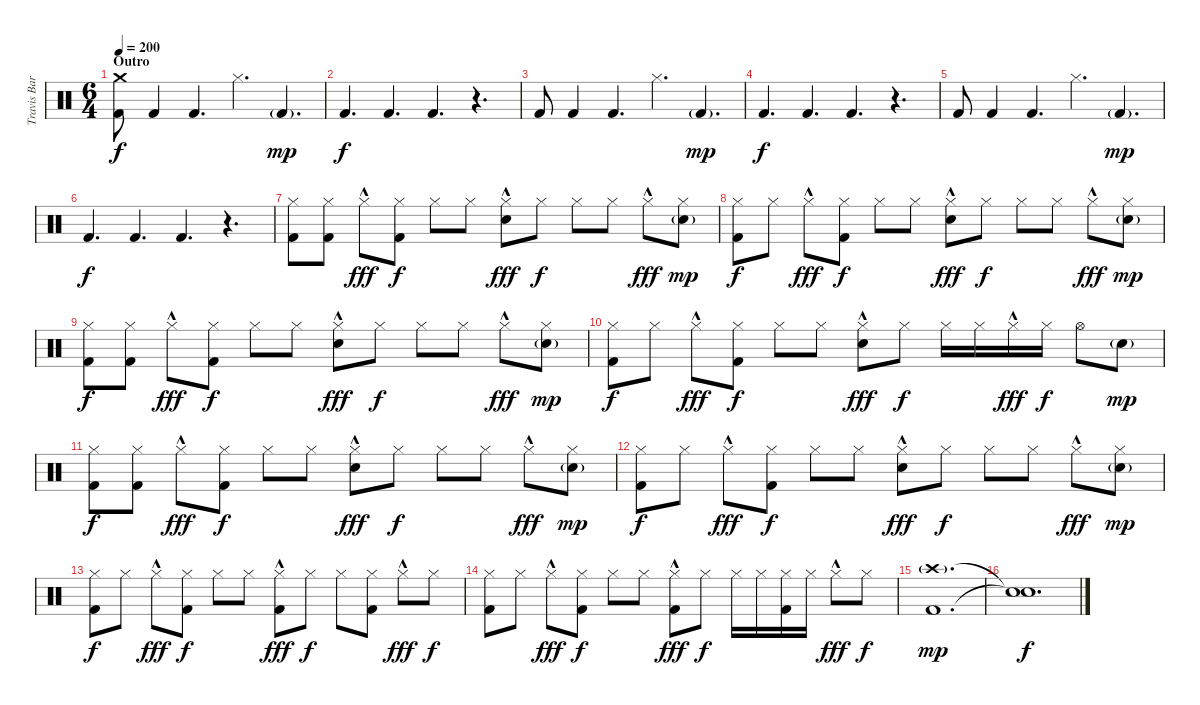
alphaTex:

\track ("Travis Barker - Drums" "Travis Bar") {instrument percussion}
\staff {score}
\articulation defaults
\ts (6 4)
\section ("" "Outro")
\tempo 200
\clef neutral
\ks c
("Crash medium (hit)" "Kick (hit) 2").8{dy f} "Kick (hit) 2".4 "Kick (hit) 2".4{d} "Hi-Hat (closed)".4{d} "Kick (hit) 2"{g}.4{d dy mp} |
"Kick (hit) 2".4{d dy f} "Kick (hit) 2".4{d} "Kick (hit) 2".4{d} r.4{d} |
"Kick (hit) 2".8 "Kick (hit) 2".4 "Kick (hit) 2".4{d} "Hi-Hat (closed)".4{d} "Kick (hit) 2"{g}.4{d dy mp} |
"Kick (hit) 2".4{d dy f} "Kick (hit) 2".4{d} "Kick (hit) 2".4{d} r.4{d} |
"Kick (hit) 2".8 "Kick (hit) 2".4 "Kick (hit) 2".4{d} "Hi-Hat (closed)".4{d} "Kick (hit) 2"{g}.4{d dy mp} |
"Kick (hit) 2".4{d dy f} "Kick (hit) 2".4{d} "Kick (hit) 2".4{d} r.4{d} |
("Hi-Hat (closed)" "Kick (hit) 2").8 ("Hi-Hat (closed)" "Kick (hit) 2").8 "Hi-Hat (closed)"{hac}.8{dy fff} ("Hi-Hat (closed)" "Kick (hit) 2").8{dy f} "Hi-Hat (closed)".8 "Hi-Hat (closed)".8 ("Hi-Hat (closed)"{hac} "Electric Snare (hit)").8{dy fff} "Hi-Hat (closed)".8{dy f} "Hi-Hat (closed)".8 "Hi-Hat (closed)".8 "Hi-Hat (closed)"{hac}.8{dy fff} ("Hi-Hat (closed)" "Electric Snare (hit)"{g}).8{dy mp} |
("Hi-Hat (closed)" "Kick (hit) 2").8{dy f} "Hi-Hat (closed)".8 "Hi-Hat (closed)"{hac}.8{dy fff} ("Hi-Hat (closed)" "Kick (hit) 2").8{dy f} "Hi-Hat (closed)".8 "Hi-Hat (closed)".8 ("Hi-Hat (closed)"{hac} "Electric Snare (hit)").8{dy fff} "Hi-Hat (closed)".8{dy f} "Hi-Hat (closed)".8 "Hi-Hat (closed)".8 "Hi-Hat (closed)"{hac}.8{dy fff} ("Hi-Hat (closed)" "Electric Snare (hit)"{g}).8{dy mp} |
("Hi-Hat (closed)" "Kick (hit) 2").8{dy f} ("Hi-Hat (closed)" "Kick (hit) 2").8 "Hi-Hat (closed)"{hac}.8{dy fff} ("Hi-Hat (closed)" "Kick (hit) 2").8{dy f} "Hi-Hat (closed)".8 "Hi-Hat (closed)".8 ("Hi-Hat (closed)"{hac} "Electric Snare (hit)").8{dy fff} "Hi-Hat (closed)".8{dy f} "Hi-Hat (closed)".8 "Hi-Hat (closed)".8 "Hi-Hat (closed)"{hac}.8{dy fff} ("Hi-Hat (closed)" "Electric Snare (hit)"{g}).8{dy mp} |
("Hi-Hat (closed)" "Kick (hit) 2").8{dy f} "Hi-Hat (closed)".8 "Hi-Hat (closed)"{hac}.8{dy fff} ("Hi-Hat (closed)" "Kick (hit) 2").8{dy f} "Hi-Hat (closed)".8 "Hi-Hat (closed)".8 ("Hi-Hat (closed)"{hac} "Electric Snare (hit)").8{dy fff} "Hi-Hat (closed)".8{dy f} "Hi-Hat (closed)".16 "Hi-Hat (closed)".16 "Hi-Hat (closed)"{hac}.16{dy fff} "Hi-Hat (closed)".16{dy f} "Hi-Hat (open)".8 "Electric Snare (hit)"{g}.8{dy mp} |
("Hi-Hat (closed)" "Kick (hit) 2").8{dy f} ("Hi-Hat (closed)" "Kick (hit) 2").8 "Hi-Hat (closed)"{hac}.8{dy fff} ("Hi-Hat (closed)" "Kick (hit) 2").8{dy f} "Hi-Hat (closed)".8 "Hi-Hat (closed)".8 ("Hi-Hat (closed)"{hac} "Electric Snare (hit)").8{dy fff} "Hi-Hat (closed)".8{dy f} "Hi-Hat (closed)".8 "Hi-Hat (closed)".8 "Hi-Hat (closed)"{hac}.8{dy fff} ("Hi-Hat (closed)" "Electric Snare (hit)"{g}).8{dy mp} |
("Hi-Hat (closed)" "Kick (hit) 2").8{dy f} "Hi-Hat (closed)".8 "Hi-Hat (closed)"{hac}.8{dy fff} ("Hi-Hat (closed)" "Kick (hit) 2").8{dy f} "Hi-Hat (closed)".8 "Hi-Hat (closed)".8 ("Hi-Hat (closed)"{hac} "Electric Snare (hit)").8{dy fff} "Hi-Hat (closed)".8{dy f} "Hi-Hat (closed)".8 "Hi-Hat (closed)".8 "Hi-Hat (closed)"{hac}.8{dy fff} ("Hi-Hat (closed)" "Electric Snare (hit)"{g}).8{dy mp} |
("Hi-Hat (closed)" "Kick (hit) 2").8{dy f} "Hi-Hat (closed)".8 "Hi-Hat (closed)"{hac}.8{dy fff} ("Hi-Hat (closed)" "Kick (hit) 2").8{dy f} "Hi-Hat (closed)".8 "Hi-Hat (closed)".8 ("Hi-Hat (closed)"{hac} "Kick (hit) 2").8{dy fff} "Hi-Hat (closed)".8{dy f} "Hi-Hat (closed)".8 ("Hi-Hat (closed)" "Kick (hit) 2").8 "Hi-Hat (closed)"{hac}.8{dy fff} "Hi-Hat (closed)".8{dy f} |
("Hi-Hat (closed)" "Kick (hit) 2").8 "Hi-Hat (closed)".8 "Hi-Hat (closed)"{hac}.8{dy fff} ("Hi-Hat (closed)" "Kick (hit) 2").8{dy f} "Hi-Hat (closed)".8 "Hi-Hat (closed)".8 ("Hi-Hat (closed)"{hac} "Kick (hit) 2").8{dy fff} "Hi-Hat (closed)".8{dy f} "Hi-Hat (closed)".16 "Hi-Hat (closed)".16 ("Hi-Hat (closed)" "Kick (hit) 2").16 "Hi-Hat (closed)".16 "Hi-Hat (closed)"{hac}.8{dy fff} "Hi-Hat (closed)".8{dy f} |
("Crash high (hit)"{g} "Kick (hit) 2").1{d dy mp} |
("Snare (hit)"{t} "Snare (hit)"{t}).1{d dy f}
